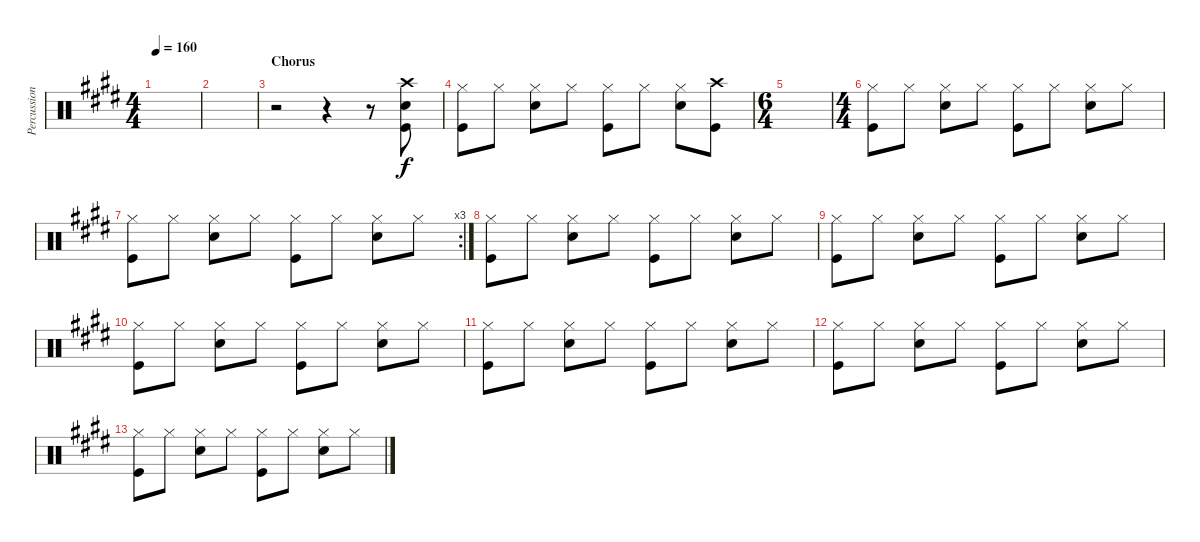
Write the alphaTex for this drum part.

\track ("Percussion" "Percussion") {instrument percussion}
\staff {score}
\articulation defaults
\ts (4 4)
\tempo 160
\clef neutral
\ks e
|
|
\section ("" "Chorus")
r.2 r.4 r.8 ("Crash high (hit)" "Snare (hit) 2" "Kick (hit)").8 |
("Hi-Hat (closed)" "Kick (hit)").8 "Hi-Hat (closed)".8 ("Hi-Hat (closed)" "Snare (hit) 2").8 "Hi-Hat (closed)".8 ("Hi-Hat (closed)" "Kick (hit)").8 "Hi-Hat (closed)".8 ("Hi-Hat (closed)" "Snare (hit) 2").8 ("Crash high (hit)" "Kick (hit)").8 |
\ts (6 4)
|
\ts (4 4)
("Hi-Hat (closed)" "Kick (hit)").8 "Hi-Hat (closed)".8 ("Hi-Hat (closed)" "Snare (hit) 2").8 "Hi-Hat (closed)".8 ("Hi-Hat (closed)" "Kick (hit)").8 "Hi-Hat (closed)".8 ("Hi-Hat (closed)" "Snare (hit) 2").8 "Hi-Hat (closed)".8 |
\rc 3
("Hi-Hat (closed)" "Kick (hit)").8 "Hi-Hat (closed)".8 ("Hi-Hat (closed)" "Snare (hit) 2").8 "Hi-Hat (closed)".8 ("Hi-Hat (closed)" "Kick (hit)").8 "Hi-Hat (closed)".8 ("Hi-Hat (closed)" "Snare (hit) 2").8 "Hi-Hat (closed)".8 |
("Hi-Hat (closed)" "Kick (hit)").8 "Hi-Hat (closed)".8 ("Hi-Hat (closed)" "Snare (hit) 2").8 "Hi-Hat (closed)".8 ("Hi-Hat (closed)" "Kick (hit)").8 "Hi-Hat (closed)".8 ("Hi-Hat (closed)" "Snare (hit) 2").8 "Hi-Hat (closed)".8 |
("Hi-Hat (closed)" "Kick (hit)").8 "Hi-Hat (closed)".8 ("Hi-Hat (closed)" "Snare (hit) 2").8 "Hi-Hat (closed)".8 ("Hi-Hat (closed)" "Kick (hit)").8 "Hi-Hat (closed)".8 ("Hi-Hat (closed)" "Snare (hit) 2").8 "Hi-Hat (closed)".8 |
("Hi-Hat (closed)" "Kick (hit)").8 "Hi-Hat (closed)".8 ("Hi-Hat (closed)" "Snare (hit) 2").8 "Hi-Hat (closed)".8 ("Hi-Hat (closed)" "Kick (hit)").8 "Hi-Hat (closed)".8 ("Hi-Hat (closed)" "Snare (hit) 2").8 "Hi-Hat (closed)".8 |
("Hi-Hat (closed)" "Kick (hit)").8 "Hi-Hat (closed)".8 ("Hi-Hat (closed)" "Snare (hit) 2").8 "Hi-Hat (closed)".8 ("Hi-Hat (closed)" "Kick (hit)").8 "Hi-Hat (closed)".8 ("Hi-Hat (closed)" "Snare (hit) 2").8 "Hi-Hat (closed)".8 |
("Hi-Hat (closed)" "Kick (hit)").8 "Hi-Hat (closed)".8 ("Hi-Hat (closed)" "Snare (hit) 2").8 "Hi-Hat (closed)".8 ("Hi-Hat (closed)" "Kick (hit)").8 "Hi-Hat (closed)".8 ("Hi-Hat (closed)" "Snare (hit) 2").8 "Hi-Hat (closed)".8 |
("Hi-Hat (closed)" "Kick (hit)").8 "Hi-Hat (closed)".8 ("Hi-Hat (closed)" "Snare (hit) 2").8 "Hi-Hat (closed)".8 ("Hi-Hat (closed)" "Kick (hit)").8 "Hi-Hat (closed)".8 ("Hi-Hat (closed)" "Snare (hit) 2").8 "Hi-Hat (closed)".8
